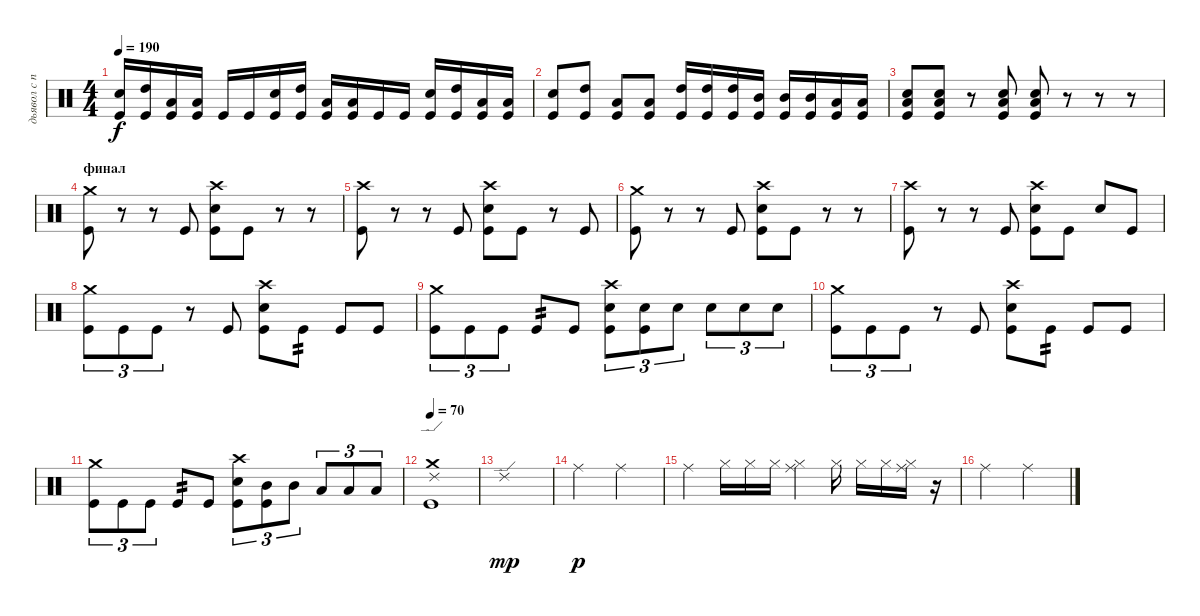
\track ("дьявол с палками" "дьявол с п") {instrument percussion}
\staff {score}
\articulation defaults
\ts (4 4)
\tempo 190
\clef neutral
\ks c
("Kick (hit)" "Snare (hit) 2").16{dy f} ("High Tom (hit)" "Kick (hit)").16 ("Low Tom (hit)" "Kick (hit)").16 ("Low Tom (hit)" "Kick (hit)").16 "Kick (hit)".16 "Kick (hit)".16 ("Kick (hit)" "Snare (hit) 2").16 ("High Tom (hit)" "Kick (hit)").16 ("Low Tom (hit)" "Kick (hit)").16 ("Low Tom (hit)" "Kick (hit)").16 "Kick (hit)".16 "Kick (hit)".16 ("Kick (hit)" "Snare (hit) 2").16 ("High Tom (hit)" "Kick (hit)").16 ("Low Tom (hit)" "Kick (hit)").16 ("Low Tom (hit)" "Kick (hit)").16 |
("Kick (hit)" "Snare (hit) 2").8 ("Kick (hit)" "High Tom (hit)").8 ("Kick (hit)" "Low Tom (hit)").8 ("Kick (hit)" "Low Tom (hit)").8 ("Kick (hit)" "High Tom (hit)").16 ("Kick (hit)" "High Tom (hit)").16 ("Kick (hit)" "High Tom (hit)").16 ("Kick (hit)" "Mid Tom (hit)").16 ("Kick (hit)" "Mid Tom (hit)").16 ("Kick (hit)" "Mid Tom (hit)").16 ("Kick (hit)" "Low Tom (hit)").16 ("Kick (hit)" "Low Tom (hit)").16 |
("Low Floor Tom (hit)" "Snare (hit) 2" "Kick (hit)").8 ("Kick (hit)" "Low Floor Tom (hit)" "Snare (hit) 2").8 r.8 ("Kick (hit)" "Low Floor Tom (hit)" "Snare (hit) 2").8 ("Kick (hit)" "Low Floor Tom (hit)" "Snare (hit) 2").8 r.8 r.8 r.8 |
\section ("" "финал")
("Kick (hit)" "Crash medium (hit)").8 r.8 r.8 "Kick (hit)".8 ("Kick (hit)" "Snare (hit) 2" "Crash high (hit)").8 "Kick (hit)".8 r.8 r.8 |
("Kick (hit)" "Crash high (hit)").8 r.8 r.8 "Kick (hit)".8 ("Kick (hit)" "Snare (hit) 2" "Crash high (hit)").8 "Kick (hit)".8 r.8 "Kick (hit)".8 |
("Kick (hit)" "Crash medium (hit)").8 r.8 r.8 "Kick (hit)".8 ("Kick (hit)" "Snare (hit) 2" "Crash high (hit)").8 "Kick (hit)".8 r.8 r.8 |
("Kick (hit)" "Crash high (hit)").8 r.8 r.8 "Kick (hit)".8 ("Kick (hit)" "Snare (hit) 2" "Crash high (hit)").8 "Kick (hit)".8 "Snare (hit) 2".8 "Kick (hit)".8 |
("Kick (hit)" "Crash medium (hit)").8{tu (3 2)} "Kick (hit)".8{tu (3 2)} "Kick (hit)".8{tu (3 2)} r.8 "Kick (hit)".8 ("Kick (hit)" "Snare (hit) 2" "Crash high (hit)").8 "Kick (hit)".8{tp 2} "Kick (hit)".8 "Kick (hit)".8 |
("Kick (hit)" "Crash medium (hit)").8{tu (3 2)} "Kick (hit)".8{tu (3 2)} "Kick (hit)".8{tu (3 2)} "Kick (hit)".8{tp 2} "Kick (hit)".8 ("Kick (hit)" "Snare (hit) 2" "Crash high (hit)").8{tu (3 2)} ("Kick (hit)" "Snare (hit) 2").8{tu (3 2)} "Snare (hit) 2".8{tu (3 2)} "Snare (hit) 2".8{tu (3 2)} "Snare (hit) 2".8{tu (3 2)} "Snare (hit) 2".8{tu (3 2)} |
("Kick (hit)" "Crash medium (hit)").8{tu (3 2)} "Kick (hit)".8{tu (3 2)} "Kick (hit)".8{tu (3 2)} r.8 "Kick (hit)".8 ("Kick (hit)" "Snare (hit) 2" "Crash high (hit)").8 "Kick (hit)".8{tp 2} "Kick (hit)".8 "Kick (hit)".8 |
("Kick (hit)" "Crash medium (hit)").8{tu (3 2)} "Kick (hit)".8{tu (3 2)} "Kick (hit)".8{tu (3 2)} "Kick (hit)".8{tp 2} "Kick (hit)".8 ("Kick (hit)" "Snare (hit) 2" "Crash high (hit)").8{tu (3 2)} ("Kick (hit)" "Mid Tom (hit)").8{tu (3 2)} "Mid Tom (hit)".8{tu (3 2)} "Low Tom (hit)".8{tu (3 2)} "Low Tom (hit)".8{tu (3 2)} "Low Tom (hit)".8{tu (3 2)} |
\tempo 70
("Kick (hit)" "Ride (edge) 2" "Crash medium (hit)").1 |
"Ride (edge) 2".1{dy mp} |
"Ride (middle)".2{dy p} "Ride (middle)".2 |
"Ride (middle)".4 "Hi-Hat (closed)".16 "Hi-Hat (closed)".16 "Hi-Hat (closed)".16 ("Hi-Hat (closed)" "Ride (middle)").4 "Hi-Hat (closed)".16 "Hi-Hat (closed)".16 "Hi-Hat (closed)".16 ("Hi-Hat (closed)" "Ride (middle)").16 r.16 |
"Ride (middle)".2 "Ride (middle)".2
